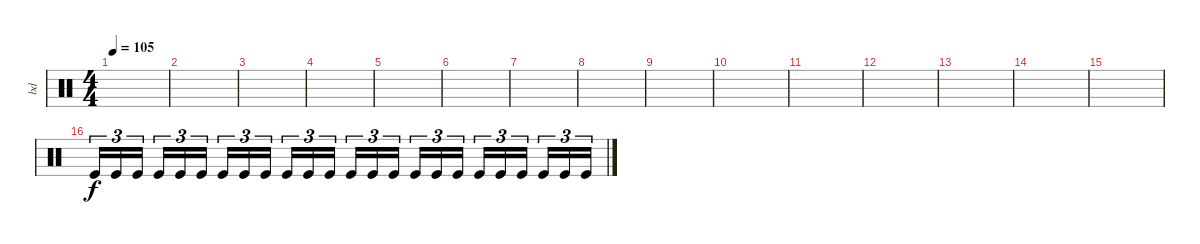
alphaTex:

\track ("bd" "bd") {instrument percussion}
\staff
\articulation defaults
\ts (4 4)
\tempo 105
\clef neutral
\ks c
|
|
|
|
|
|
|
|
|
|
|
|
|
|
|
"Kick (hit)".16{tu (3 2)} "Kick (hit)".16{tu (3 2)} "Kick (hit)".16{tu (3 2) beam splitsecondary} "Kick (hit)".16{tu (3 2)} "Kick (hit)".16{tu (3 2)} "Kick (hit)".16{tu (3 2)} "Kick (hit)".16{tu (3 2)} "Kick (hit)".16{tu (3 2)} "Kick (hit)".16{tu (3 2) beam splitsecondary} "Kick (hit)".16{tu (3 2)} "Kick (hit)".16{tu (3 2)} "Kick (hit)".16{tu (3 2)} "Kick (hit)".16{tu (3 2)} "Kick (hit)".16{tu (3 2)} "Kick (hit)".16{tu (3 2) beam splitsecondary} "Kick (hit)".16{tu (3 2)} "Kick (hit)".16{tu (3 2)} "Kick (hit)".16{tu (3 2)} "Kick (hit)".16{tu (3 2)} "Kick (hit)".16{tu (3 2)} "Kick (hit)".16{tu (3 2) beam splitsecondary} "Kick (hit)".16{tu (3 2)} "Kick (hit)".16{tu (3 2)} "Kick (hit)".16{tu (3 2)}
